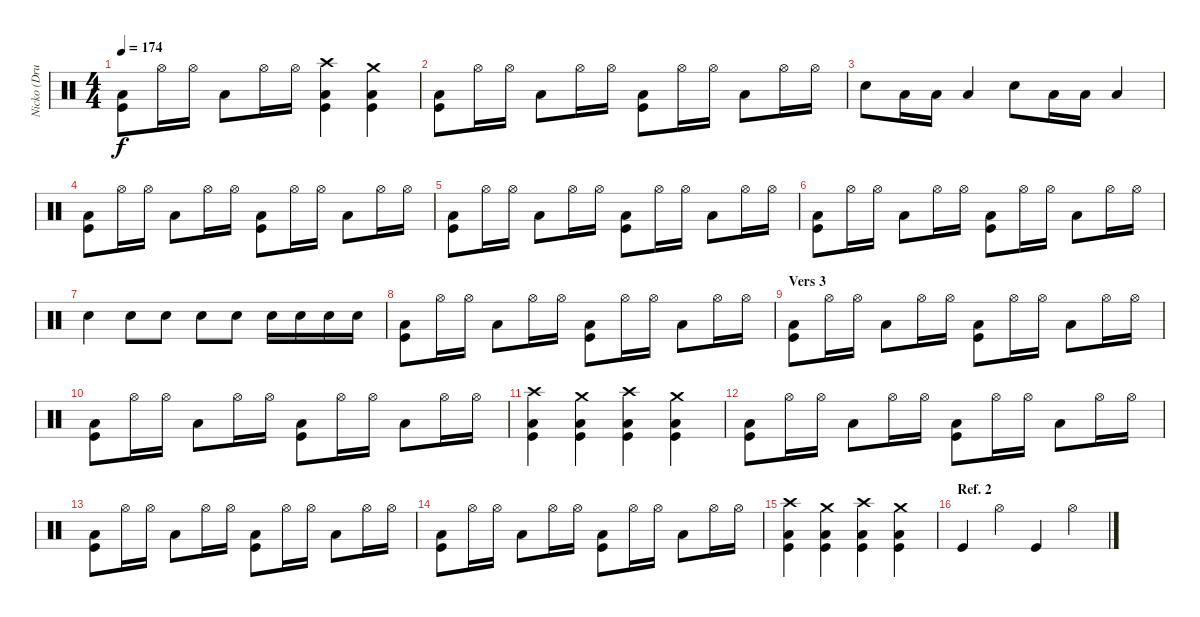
\track ("Nicko (Drums)" "Nicko (Dru") {instrument percussion}
\staff {score}
\articulation defaults
\ts (4 4)
\tempo 174
\clef neutral
\ks c
("Low Tom (hit)" "Kick (hit)").8{dy f} "Hi-Hat (open)".16 "Hi-Hat (open)".16 "Low Tom (hit)".8 "Hi-Hat (open)".16 "Hi-Hat (open)".16 ("Crash high (hit)" "Low Tom (hit)" "Kick (hit)").4 ("Crash medium (hit)" "Low Tom (hit)" "Kick (hit)").4 |
("Low Tom (hit)" "Kick (hit)").8 "Hi-Hat (open)".16 "Hi-Hat (open)".16 "Low Tom (hit)".8 "Hi-Hat (open)".16 "Hi-Hat (open)".16 ("Low Tom (hit)" "Kick (hit)").8 "Hi-Hat (open)".16 "Hi-Hat (open)".16 "Low Tom (hit)".8 "Hi-Hat (open)".16 "Hi-Hat (open)".16 |
"Snare (hit) 2".8 "Low Tom (hit)".16 "Low Tom (hit)".16 "Low Tom (hit)".4 "Snare (hit) 2".8 "Low Tom (hit)".16 "Low Tom (hit)".16 "Low Tom (hit)".4 |
("Low Tom (hit)" "Kick (hit)").8 "Hi-Hat (open)".16 "Hi-Hat (open)".16 "Low Tom (hit)".8 "Hi-Hat (open)".16 "Hi-Hat (open)".16 ("Low Tom (hit)" "Kick (hit)").8 "Hi-Hat (open)".16 "Hi-Hat (open)".16 "Low Tom (hit)".8 "Hi-Hat (open)".16 "Hi-Hat (open)".16 |
("Low Tom (hit)" "Kick (hit)").8 "Hi-Hat (open)".16 "Hi-Hat (open)".16 "Low Tom (hit)".8 "Hi-Hat (open)".16 "Hi-Hat (open)".16 ("Low Tom (hit)" "Kick (hit)").8 "Hi-Hat (open)".16 "Hi-Hat (open)".16 "Low Tom (hit)".8 "Hi-Hat (open)".16 "Hi-Hat (open)".16 |
("Low Tom (hit)" "Kick (hit)").8 "Hi-Hat (open)".16 "Hi-Hat (open)".16 "Low Tom (hit)".8 "Hi-Hat (open)".16 "Hi-Hat (open)".16 ("Low Tom (hit)" "Kick (hit)").8 "Hi-Hat (open)".16 "Hi-Hat (open)".16 "Low Tom (hit)".8 "Hi-Hat (open)".16 "Hi-Hat (open)".16 |
"Snare (hit) 2".4 "Snare (hit) 2".8 "Snare (hit) 2".8 "Snare (hit) 2".8 "Snare (hit) 2".8 "Snare (hit) 2".16 "Snare (hit) 2".16 "Snare (hit) 2".16 "Snare (hit) 2".16 |
("Low Tom (hit)" "Kick (hit)").8 "Hi-Hat (open)".16 "Hi-Hat (open)".16 "Low Tom (hit)".8 "Hi-Hat (open)".16 "Hi-Hat (open)".16 ("Low Tom (hit)" "Kick (hit)").8 "Hi-Hat (open)".16 "Hi-Hat (open)".16 "Low Tom (hit)".8 "Hi-Hat (open)".16 "Hi-Hat (open)".16 |
\section ("" "Vers 3")
("Low Tom (hit)" "Kick (hit)").8 "Hi-Hat (open)".16 "Hi-Hat (open)".16 "Low Tom (hit)".8 "Hi-Hat (open)".16 "Hi-Hat (open)".16 ("Low Tom (hit)" "Kick (hit)").8 "Hi-Hat (open)".16 "Hi-Hat (open)".16 "Low Tom (hit)".8 "Hi-Hat (open)".16 "Hi-Hat (open)".16 |
("Low Tom (hit)" "Kick (hit)").8 "Hi-Hat (open)".16 "Hi-Hat (open)".16 "Low Tom (hit)".8 "Hi-Hat (open)".16 "Hi-Hat (open)".16 ("Low Tom (hit)" "Kick (hit)").8 "Hi-Hat (open)".16 "Hi-Hat (open)".16 "Low Tom (hit)".8 "Hi-Hat (open)".16 "Hi-Hat (open)".16 |
("Crash high (hit)" "Low Tom (hit)" "Kick (hit)").4 ("Crash medium (hit)" "Low Tom (hit)" "Kick (hit)").4 ("Crash high (hit)" "Low Tom (hit)" "Kick (hit)").4 ("Crash medium (hit)" "Low Tom (hit)" "Kick (hit)").4 |
("Low Tom (hit)" "Kick (hit)").8 "Hi-Hat (open)".16 "Hi-Hat (open)".16 "Low Tom (hit)".8 "Hi-Hat (open)".16 "Hi-Hat (open)".16 ("Low Tom (hit)" "Kick (hit)").8 "Hi-Hat (open)".16 "Hi-Hat (open)".16 "Low Tom (hit)".8 "Hi-Hat (open)".16 "Hi-Hat (open)".16 |
("Low Tom (hit)" "Kick (hit)").8 "Hi-Hat (open)".16 "Hi-Hat (open)".16 "Low Tom (hit)".8 "Hi-Hat (open)".16 "Hi-Hat (open)".16 ("Low Tom (hit)" "Kick (hit)").8 "Hi-Hat (open)".16 "Hi-Hat (open)".16 "Low Tom (hit)".8 "Hi-Hat (open)".16 "Hi-Hat (open)".16 |
("Low Tom (hit)" "Kick (hit)").8 "Hi-Hat (open)".16 "Hi-Hat (open)".16 "Low Tom (hit)".8 "Hi-Hat (open)".16 "Hi-Hat (open)".16 ("Low Tom (hit)" "Kick (hit)").8 "Hi-Hat (open)".16 "Hi-Hat (open)".16 "Low Tom (hit)".8 "Hi-Hat (open)".16 "Hi-Hat (open)".16 |
("Crash high (hit)" "Low Tom (hit)" "Kick (hit)").4 ("Crash medium (hit)" "Low Tom (hit)" "Kick (hit)").4 ("Crash high (hit)" "Low Tom (hit)" "Kick (hit)").4 ("Crash medium (hit)" "Low Tom (hit)" "Kick (hit)").4 |
\section ("" "Ref. 2")
"Kick (hit)".4 "Hi-Hat (open)".4 "Kick (hit)".4 "Hi-Hat (open)".4
